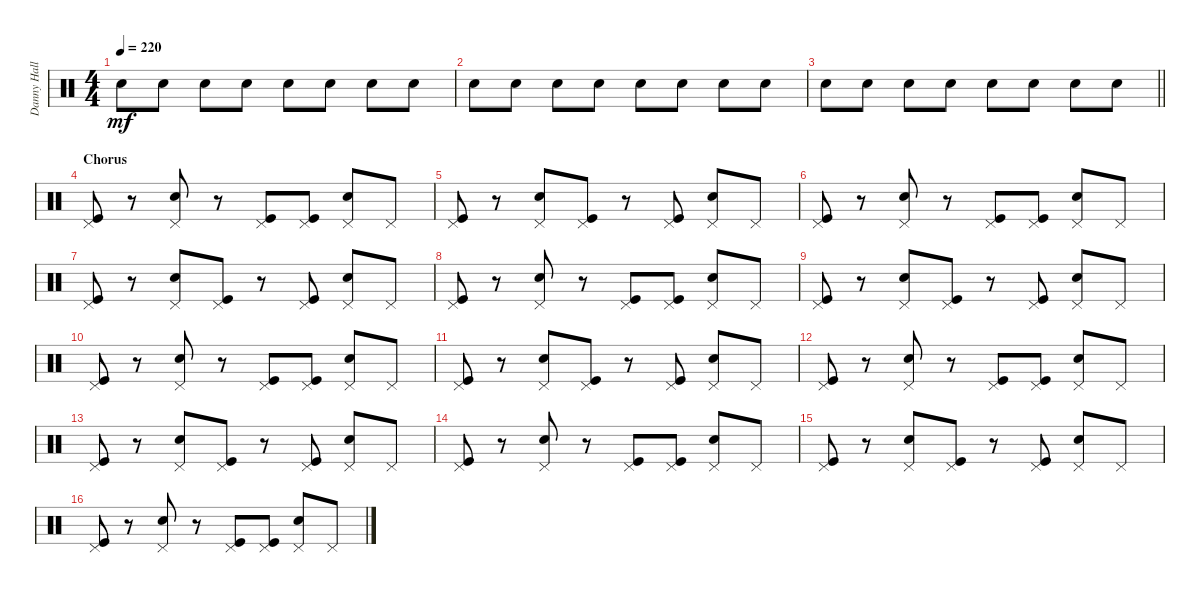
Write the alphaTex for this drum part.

\track ("Danny Hall" "Danny Hall") {instrument percussion}
\staff {score}
\articulation defaults
\ts (4 4)
\tempo 220
\clef neutral
\ks c "Snare (hit) 2".8{dy mf} "Snare (hit) 2".8 "Snare (hit) 2".8 "Snare (hit) 2".8 "Snare (hit) 2".8 "Snare (hit) 2".8 "Snare (hit) 2".8 "Snare (hit) 2".8
|
"Snare (hit) 2".8 "Snare (hit) 2".8 "Snare (hit) 2".8 "Snare (hit) 2".8 "Snare (hit) 2".8 "Snare (hit) 2".8 "Snare (hit) 2".8 "Snare (hit) 2".8 |
\barLineRight lightlight "Snare (hit) 2".8 "Snare (hit) 2".8 "Snare (hit) 2".8 "Snare (hit) 2".8 "Snare (hit) 2".8 "Snare (hit) 2".8 "Snare (hit) 2".8 "Snare (hit) 2".8
|
\section ("" "Chorus")
("Pedal Hi-Hat (hit)" "Kick (hit)").8 r.8 ("Pedal Hi-Hat (hit)" "Snare (hit) 2").8 r.8 ("Pedal Hi-Hat (hit)" "Kick (hit)").8 ("Pedal Hi-Hat (hit)" "Kick (hit)").8 ("Pedal Hi-Hat (hit)" "Snare (hit) 2").8 "Pedal Hi-Hat (hit)".8 |
("Pedal Hi-Hat (hit)" "Kick (hit)").8 r.8 ("Pedal Hi-Hat (hit)" "Snare (hit) 2").8 ("Pedal Hi-Hat (hit)" "Kick (hit)").8 r.8 ("Pedal Hi-Hat (hit)" "Kick (hit)").8 ("Pedal Hi-Hat (hit)" "Snare (hit) 2").8 "Pedal Hi-Hat (hit)".8 |
("Pedal Hi-Hat (hit)" "Kick (hit)").8 r.8 ("Pedal Hi-Hat (hit)" "Snare (hit) 2").8 r.8 ("Pedal Hi-Hat (hit)" "Kick (hit)").8 ("Pedal Hi-Hat (hit)" "Kick (hit)").8 ("Pedal Hi-Hat (hit)" "Snare (hit) 2").8 "Pedal Hi-Hat (hit)".8 |
("Pedal Hi-Hat (hit)" "Kick (hit)").8 r.8 ("Pedal Hi-Hat (hit)" "Snare (hit) 2").8 ("Pedal Hi-Hat (hit)" "Kick (hit)").8 r.8 ("Pedal Hi-Hat (hit)" "Kick (hit)").8 ("Pedal Hi-Hat (hit)" "Snare (hit) 2").8 "Pedal Hi-Hat (hit)".8 |
("Pedal Hi-Hat (hit)" "Kick (hit)").8 r.8 ("Pedal Hi-Hat (hit)" "Snare (hit) 2").8 r.8 ("Pedal Hi-Hat (hit)" "Kick (hit)").8 ("Pedal Hi-Hat (hit)" "Kick (hit)").8 ("Pedal Hi-Hat (hit)" "Snare (hit) 2").8 "Pedal Hi-Hat (hit)".8 |
("Pedal Hi-Hat (hit)" "Kick (hit)").8 r.8 ("Pedal Hi-Hat (hit)" "Snare (hit) 2").8 ("Pedal Hi-Hat (hit)" "Kick (hit)").8 r.8 ("Pedal Hi-Hat (hit)" "Kick (hit)").8 ("Pedal Hi-Hat (hit)" "Snare (hit) 2").8 "Pedal Hi-Hat (hit)".8 |
("Pedal Hi-Hat (hit)" "Kick (hit)").8 r.8 ("Pedal Hi-Hat (hit)" "Snare (hit) 2").8 r.8 ("Pedal Hi-Hat (hit)" "Kick (hit)").8 ("Pedal Hi-Hat (hit)" "Kick (hit)").8 ("Pedal Hi-Hat (hit)" "Snare (hit) 2").8 "Pedal Hi-Hat (hit)".8 |
("Pedal Hi-Hat (hit)" "Kick (hit)").8 r.8 ("Pedal Hi-Hat (hit)" "Snare (hit) 2").8 ("Pedal Hi-Hat (hit)" "Kick (hit)").8 r.8 ("Pedal Hi-Hat (hit)" "Kick (hit)").8 ("Pedal Hi-Hat (hit)" "Snare (hit) 2").8 "Pedal Hi-Hat (hit)".8 |
("Pedal Hi-Hat (hit)" "Kick (hit)").8 r.8 ("Pedal Hi-Hat (hit)" "Snare (hit) 2").8 r.8 ("Pedal Hi-Hat (hit)" "Kick (hit)").8 ("Pedal Hi-Hat (hit)" "Kick (hit)").8 ("Pedal Hi-Hat (hit)" "Snare (hit) 2").8 "Pedal Hi-Hat (hit)".8 |
("Pedal Hi-Hat (hit)" "Kick (hit)").8 r.8 ("Pedal Hi-Hat (hit)" "Snare (hit) 2").8 ("Pedal Hi-Hat (hit)" "Kick (hit)").8 r.8 ("Pedal Hi-Hat (hit)" "Kick (hit)").8 ("Pedal Hi-Hat (hit)" "Snare (hit) 2").8 "Pedal Hi-Hat (hit)".8 |
("Pedal Hi-Hat (hit)" "Kick (hit)").8 r.8 ("Pedal Hi-Hat (hit)" "Snare (hit) 2").8 r.8 ("Pedal Hi-Hat (hit)" "Kick (hit)").8 ("Pedal Hi-Hat (hit)" "Kick (hit)").8 ("Pedal Hi-Hat (hit)" "Snare (hit) 2").8 "Pedal Hi-Hat (hit)".8 |
("Pedal Hi-Hat (hit)" "Kick (hit)").8 r.8 ("Pedal Hi-Hat (hit)" "Snare (hit) 2").8 ("Pedal Hi-Hat (hit)" "Kick (hit)").8 r.8 ("Pedal Hi-Hat (hit)" "Kick (hit)").8 ("Pedal Hi-Hat (hit)" "Snare (hit) 2").8 "Pedal Hi-Hat (hit)".8 |
("Pedal Hi-Hat (hit)" "Kick (hit)").8 r.8 ("Pedal Hi-Hat (hit)" "Snare (hit) 2").8 r.8 ("Pedal Hi-Hat (hit)" "Kick (hit)").8 ("Pedal Hi-Hat (hit)" "Kick (hit)").8 ("Pedal Hi-Hat (hit)" "Snare (hit) 2").8 "Pedal Hi-Hat (hit)".8
